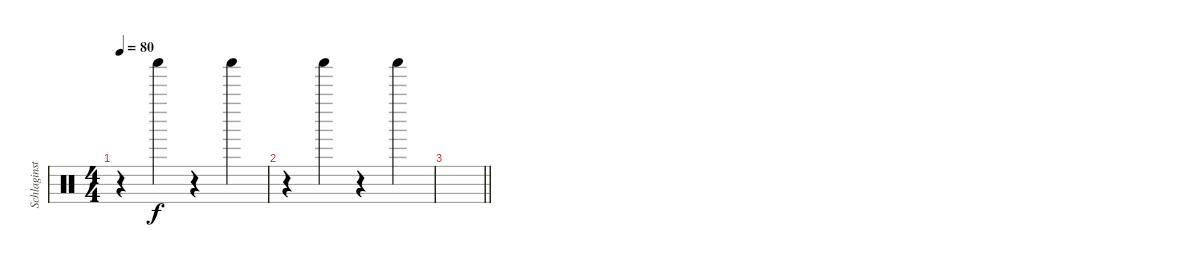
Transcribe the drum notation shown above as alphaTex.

\track ("Schlaginstrumente - Auswahl" "Schlaginst") {instrument percussion}
\staff {score}
\articulation defaults
\ts (4 4)
\tempo 80
\clef neutral
\ks c
r.4{dy f} "Shaker (hit)".4 r.4 "Shaker (hit)".4 |
r.4 "Shaker (hit)".4 r.4 "Shaker (hit)".4 |
\barLineRight lightlight
